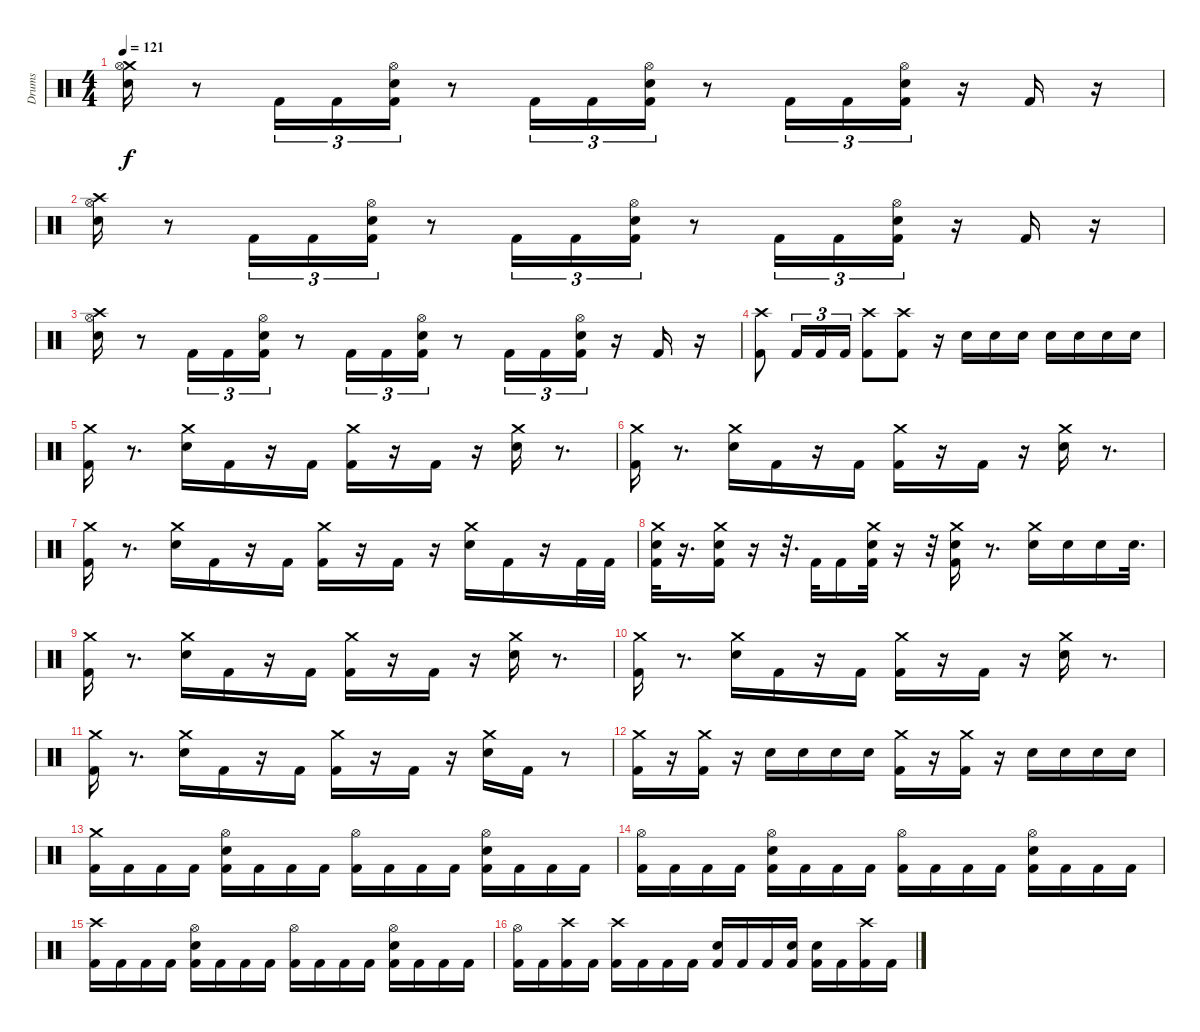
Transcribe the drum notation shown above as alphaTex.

\track ("Drums" "Drums") {instrument percussion}
\staff {score}
\articulation defaults
\ts (4 4)
\tempo 121
\clef neutral
\ks c
("Crash medium (hit)" "Hi-Hat (open)" "Electric Snare (hit)").16{dy f} r.8 "Kick (hit) 2".16{tu (3 2)} "Kick (hit) 2".16{tu (3 2)} ("Hi-Hat (open)" "Electric Snare (hit)" "Kick (hit) 2").16{tu (3 2)} r.8 "Kick (hit) 2".16{tu (3 2)} "Kick (hit) 2".16{tu (3 2)} ("Hi-Hat (open)" "Electric Snare (hit)" "Kick (hit) 2").16{tu (3 2)} r.8 "Kick (hit) 2".16{tu (3 2)} "Kick (hit) 2".16{tu (3 2)} ("Hi-Hat (open)" "Electric Snare (hit)" "Kick (hit) 2").16{tu (3 2)} r.16 "Kick (hit) 2".16 r.16 |
("Crash high (hit)" "Hi-Hat (open)" "Electric Snare (hit)").16 r.8 "Kick (hit) 2".16{tu (3 2)} "Kick (hit) 2".16{tu (3 2)} ("Hi-Hat (open)" "Electric Snare (hit)" "Kick (hit) 2").16{tu (3 2)} r.8 "Kick (hit) 2".16{tu (3 2)} "Kick (hit) 2".16{tu (3 2)} ("Hi-Hat (open)" "Electric Snare (hit)" "Kick (hit) 2").16{tu (3 2)} r.8 "Kick (hit) 2".16{tu (3 2)} "Kick (hit) 2".16{tu (3 2)} ("Hi-Hat (open)" "Electric Snare (hit)" "Kick (hit) 2").16{tu (3 2)} r.16 "Kick (hit) 2".16 r.16 |
("Crash high (hit)" "Hi-Hat (open)" "Electric Snare (hit)").16 r.8 "Kick (hit) 2".16{tu (3 2)} "Kick (hit) 2".16{tu (3 2)} ("Hi-Hat (open)" "Electric Snare (hit)" "Kick (hit) 2").16{tu (3 2)} r.8 "Kick (hit) 2".16{tu (3 2)} "Kick (hit) 2".16{tu (3 2)} ("Hi-Hat (open)" "Electric Snare (hit)" "Kick (hit) 2").16{tu (3 2)} r.8 "Kick (hit) 2".16{tu (3 2)} "Kick (hit) 2".16{tu (3 2)} ("Hi-Hat (open)" "Electric Snare (hit)" "Kick (hit) 2").16{tu (3 2)} r.16 "Kick (hit) 2".16 r.16 |
("Crash high (hit)" "Kick (hit) 2").8 "Kick (hit) 2".16{tu (3 2)} "Kick (hit) 2".16{tu (3 2)} "Kick (hit) 2".16{tu (3 2)} ("Crash high (hit)" "Kick (hit) 2").8 ("Crash high (hit)" "Kick (hit) 2").8 r.16 "Electric Snare (hit)".16 "Electric Snare (hit)".16 "Electric Snare (hit)".16 "Snare (hit) 2".16 "Snare (hit) 2".16 "Snare (hit) 2".16 "Snare (hit) 2".16 |
("Crash medium (hit)" "Kick (hit) 2").16 r.8{d} ("Crash medium (hit)" "Electric Snare (hit)").16 "Kick (hit) 2".16 r.16 "Kick (hit) 2".16 ("Crash medium (hit)" "Kick (hit) 2").16 r.16 "Kick (hit) 2".16 r.16 ("Crash medium (hit)" "Electric Snare (hit)").16 r.8{d} |
("Crash medium (hit)" "Kick (hit) 2").16 r.8{d} ("Crash medium (hit)" "Electric Snare (hit)").16 "Kick (hit) 2".16 r.16 "Kick (hit) 2".16 ("Crash medium (hit)" "Kick (hit) 2").16 r.16 "Kick (hit) 2".16 r.16 ("Crash medium (hit)" "Electric Snare (hit)").16 r.8{d} |
("Crash medium (hit)" "Kick (hit) 2").16 r.8{d} ("Crash medium (hit)" "Electric Snare (hit)").16 "Kick (hit) 2".16 r.16 "Kick (hit) 2".16 ("Crash medium (hit)" "Kick (hit) 2").16 r.16 "Kick (hit) 2".16 r.16 ("Crash medium (hit)" "Electric Snare (hit)").16 "Kick (hit) 2".16 r.16 "Kick (hit) 2".32 "Kick (hit) 2".32 |
("Crash medium (hit)" "Electric Snare (hit)" "Kick (hit) 2").32 r.16{d} ("Crash medium (hit)" "Electric Snare (hit)" "Kick (hit) 2").16 r.16 r.32{d} "Kick (hit) 2".32 "Kick (hit) 2".16 ("Crash medium (hit)" "Electric Snare (hit)" "Kick (hit) 2").32 r.16 r.32 ("Crash medium (hit)" "Electric Snare (hit)" "Kick (hit) 2").16 r.8{d} ("Crash medium (hit)" "Electric Snare (hit)").16 "Snare (hit) 2".16 "Snare (hit) 2".16 "Snare (hit) 2".32{d} |
("Crash medium (hit)" "Kick (hit) 2").16 r.8{d} ("Crash medium (hit)" "Electric Snare (hit)").16 "Kick (hit) 2".16 r.16 "Kick (hit) 2".16 ("Crash medium (hit)" "Kick (hit) 2").16 r.16 "Kick (hit) 2".16 r.16 ("Crash medium (hit)" "Electric Snare (hit)").16 r.8{d} |
("Crash medium (hit)" "Kick (hit) 2").16 r.8{d} ("Crash medium (hit)" "Electric Snare (hit)").16 "Kick (hit) 2".16 r.16 "Kick (hit) 2".16 ("Crash medium (hit)" "Kick (hit) 2").16 r.16 "Kick (hit) 2".16 r.16 ("Crash medium (hit)" "Electric Snare (hit)").16 r.8{d} |
("Crash medium (hit)" "Kick (hit) 2").16 r.8{d} ("Crash medium (hit)" "Electric Snare (hit)").16 "Kick (hit) 2".16 r.16 "Kick (hit) 2".16 ("Crash medium (hit)" "Kick (hit) 2").16 r.16 "Kick (hit) 2".16 r.16 ("Crash medium (hit)" "Electric Snare (hit)").16 "Kick (hit) 2".16 r.8 |
("Crash medium (hit)" "Kick (hit) 2").16 r.16 ("Crash medium (hit)" "Kick (hit) 2").16 r.16 "Electric Snare (hit)".16 "Electric Snare (hit)".16 "Electric Snare (hit)".16 "Electric Snare (hit)".16 ("Crash medium (hit)" "Kick (hit) 2").16 r.16 ("Crash medium (hit)" "Kick (hit) 2").16 r.16 "Electric Snare (hit)".16 "Electric Snare (hit)".16 "Electric Snare (hit)".16 "Electric Snare (hit)".16 |
("Crash medium (hit)" "Kick (hit) 2").16 "Kick (hit) 2".16 "Kick (hit) 2".16 "Kick (hit) 2".16 ("Hi-Hat (open)" "Electric Snare (hit)" "Kick (hit) 2").16 "Kick (hit) 2".16 "Kick (hit) 2".16 "Kick (hit) 2".16 ("Hi-Hat (open)" "Kick (hit) 2").16 "Kick (hit) 2".16 "Kick (hit) 2".16 "Kick (hit) 2".16 ("Hi-Hat (open)" "Electric Snare (hit)" "Kick (hit) 2").16 "Kick (hit) 2".16 "Kick (hit) 2".16 "Kick (hit) 2".16 |
("Hi-Hat (open)" "Kick (hit) 2").16 "Kick (hit) 2".16 "Kick (hit) 2".16 "Kick (hit) 2".16 ("Hi-Hat (open)" "Electric Snare (hit)" "Kick (hit) 2").16 "Kick (hit) 2".16 "Kick (hit) 2".16 "Kick (hit) 2".16 ("Hi-Hat (open)" "Kick (hit) 2").16 "Kick (hit) 2".16 "Kick (hit) 2".16 "Kick (hit) 2".16 ("Hi-Hat (open)" "Electric Snare (hit)" "Kick (hit) 2").16 "Kick (hit) 2".16 "Kick (hit) 2".16 "Kick (hit) 2".16 |
("Crash high (hit)" "Kick (hit) 2").16 "Kick (hit) 2".16 "Kick (hit) 2".16 "Kick (hit) 2".16 ("Hi-Hat (open)" "Electric Snare (hit)" "Kick (hit) 2").16 "Kick (hit) 2".16 "Kick (hit) 2".16 "Kick (hit) 2".16 ("Hi-Hat (open)" "Kick (hit) 2").16 "Kick (hit) 2".16 "Kick (hit) 2".16 "Kick (hit) 2".16 ("Hi-Hat (open)" "Electric Snare (hit)" "Kick (hit) 2").16 "Kick (hit) 2".16 "Kick (hit) 2".16 "Kick (hit) 2".16 |
("Hi-Hat (open)" "Kick (hit) 2").16 "Kick (hit) 2".16 ("Crash high (hit)" "Kick (hit) 2").16 "Kick (hit) 2".16 ("Crash high (hit)" "Kick (hit) 2").16 "Kick (hit) 2".16 "Kick (hit) 2".16 "Kick (hit) 2".16 ("Electric Snare (hit)" "Kick (hit) 2").16 "Kick (hit) 2".16 "Kick (hit) 2".16 ("Snare (hit) 2" "Kick (hit) 2").16 ("Snare (hit) 2" "Kick (hit) 2").16 "Kick (hit) 2".16 ("Crash high (hit)" "Kick (hit) 2").16 "Kick (hit) 2".16
